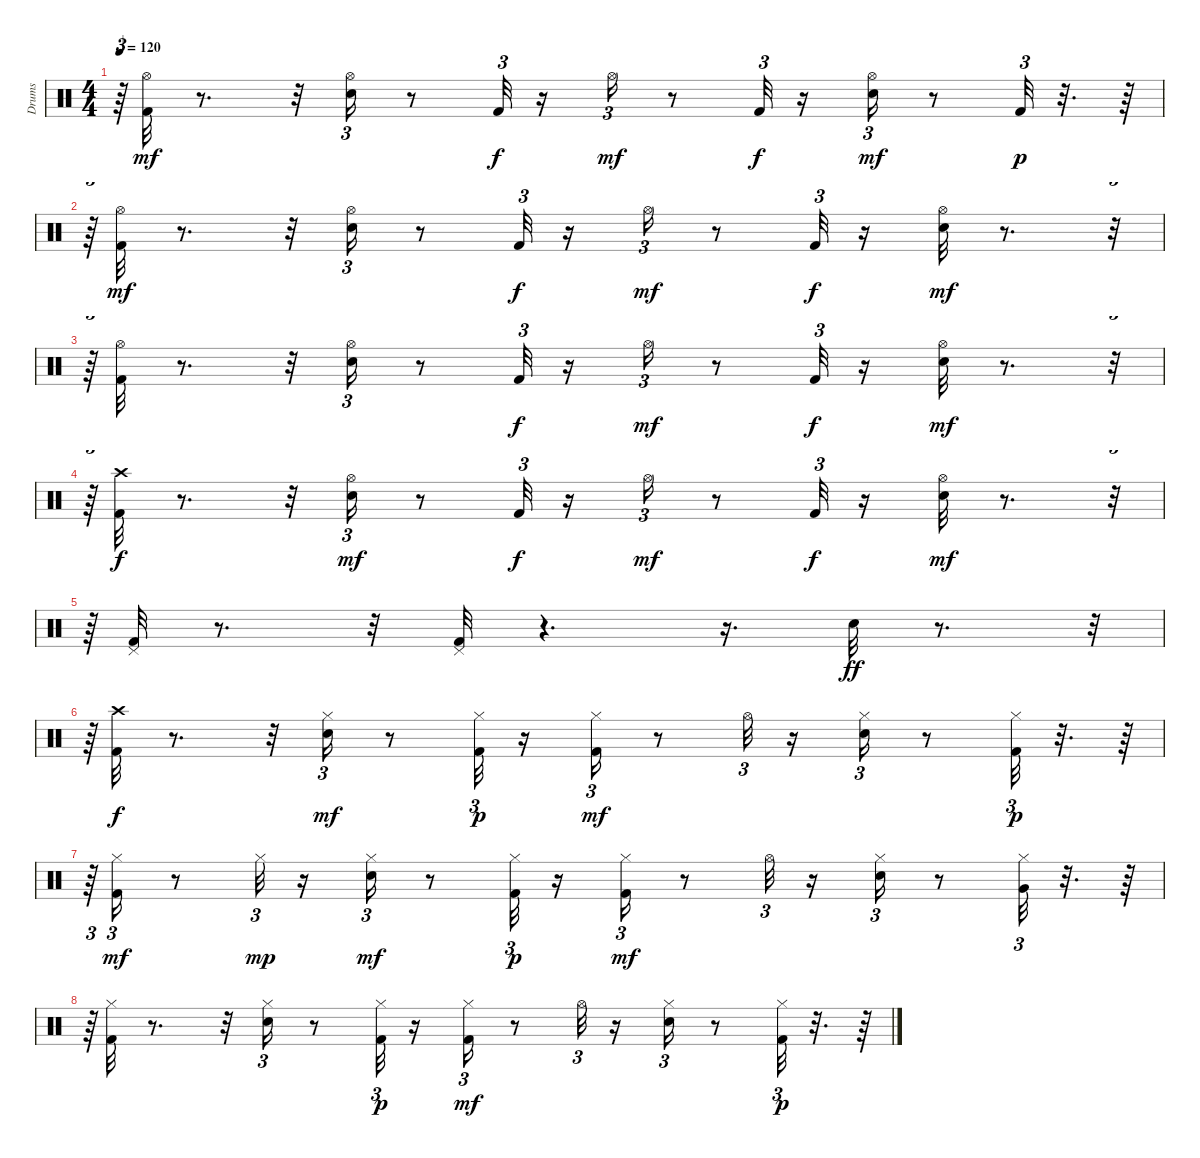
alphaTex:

\track ("Drums" "Drums") {instrument percussion}
\staff {score}
\articulation defaults
\ts (4 4)
\tempo 120
\clef neutral
\ks c
r.64{tu (3 2) dy mf} ("Kick (hit) 2" "Hi-Hat (open)").32 r.8{d} r.32 ("Electric Snare (hit)" "Hi-Hat (open)").16{tu (3 2)} r.8 "Kick (hit) 2".32{tu (3 2) dy f} r.16 "Hi-Hat (open)".16{tu (3 2) dy mf} r.8 "Kick (hit) 2".32{tu (3 2) dy f} r.16 ("Electric Snare (hit)" "Hi-Hat (open)").16{tu (3 2) dy mf} r.8 "Kick (hit) 2".32{tu (3 2) dy p} r.32{d} r.64 |
r.64{tu (3 2)} ("Kick (hit) 2" "Hi-Hat (open)").32{dy mf} r.8{d} r.32 ("Electric Snare (hit)" "Hi-Hat (open)").16{tu (3 2)} r.8 "Kick (hit) 2".32{tu (3 2) dy f} r.16 "Hi-Hat (open)".16{tu (3 2) dy mf} r.8 "Kick (hit) 2".32{tu (3 2) dy f} r.16 ("Electric Snare (hit)" "Hi-Hat (open)").32{dy mf} r.8{d} r.32{tu (3 2)} |
r.64{tu (3 2)} ("Kick (hit) 2" "Hi-Hat (open)").32 r.8{d} r.32 ("Electric Snare (hit)" "Hi-Hat (open)").16{tu (3 2)} r.8 "Kick (hit) 2".32{tu (3 2) dy f} r.16 "Hi-Hat (open)".16{tu (3 2) dy mf} r.8 "Kick (hit) 2".32{tu (3 2) dy f} r.16 ("Electric Snare (hit)" "Hi-Hat (open)").32{dy mf} r.8{d} r.32{tu (3 2)} |
r.64{tu (3 2)} ("Kick (hit) 2" "Crash high (hit)").32{dy f} r.8{d} r.32 ("Electric Snare (hit)" "Hi-Hat (open)").16{tu (3 2) dy mf} r.8 "Kick (hit) 2".32{tu (3 2) dy f} r.16 "Hi-Hat (open)".16{tu (3 2) dy mf} r.8 "Kick (hit) 2".32{tu (3 2) dy f} r.16 ("Electric Snare (hit)" "Hi-Hat (open)").32{dy mf} r.8{d} r.32{tu (3 2)} |
r.64{tu (3 2)} ("Kick (hit) 2" "Pedal Hi-Hat (hit)").32 r.8{d} r.32 ("Kick (hit) 2" "Pedal Hi-Hat (hit)").32 r.4{d} r.16{d} "Electric Snare (hit)".32{dy ff} r.8{d} r.32{tu (3 2)} |
r.64{tu (3 2)} ("Kick (hit) 2" "Crash high (hit)").32{dy f} r.8{d} r.32 ("Electric Snare (hit)" "Hi-Hat (closed)").16{tu (3 2) dy mf} r.8 ("Kick (hit) 2" "Hi-Hat (closed)").32{tu (3 2) dy p} r.16 ("Kick (hit) 2" "Hi-Hat (closed)").16{tu (3 2) dy mf} r.8 "Hi-Hat (open)".32{tu (3 2)} r.16 ("Electric Snare (hit)" "Hi-Hat (closed)").16{tu (3 2)} r.8 ("Kick (hit) 2" "Hi-Hat (closed)").32{tu (3 2) dy p} r.32{d} r.64 |
r.64{tu (3 2)} ("Kick (hit) 2" "Hi-Hat (closed)").16{tu (3 2) dy mf} r.8 "Hi-Hat (closed)".32{tu (3 2) dy mp} r.16 ("Electric Snare (hit)" "Hi-Hat (closed)").16{tu (3 2) dy mf} r.8 ("Kick (hit) 2" "Hi-Hat (closed)").32{tu (3 2) dy p} r.16 ("Kick (hit) 2" "Hi-Hat (closed)").16{tu (3 2) dy mf} r.8 "Hi-Hat (open)".32{tu (3 2)} r.16 ("Electric Snare (hit)" "Hi-Hat (closed)").16{tu (3 2)} r.8 ("Hi-Hat (closed)" "Very Low Tom (hit)").32{tu (3 2)} r.32{d} r.64 |
r.64{tu (3 2)} ("Kick (hit) 2" "Hi-Hat (closed)").32 r.8{d} r.32 ("Electric Snare (hit)" "Hi-Hat (closed)").16{tu (3 2)} r.8 ("Kick (hit) 2" "Hi-Hat (closed)").32{tu (3 2) dy p} r.16 ("Kick (hit) 2" "Hi-Hat (closed)").16{tu (3 2) dy mf} r.8 "Hi-Hat (open)".32{tu (3 2)} r.16 ("Electric Snare (hit)" "Hi-Hat (closed)").16{tu (3 2)} r.8 ("Kick (hit) 2" "Hi-Hat (closed)").32{tu (3 2) dy p} r.32{d} r.64
